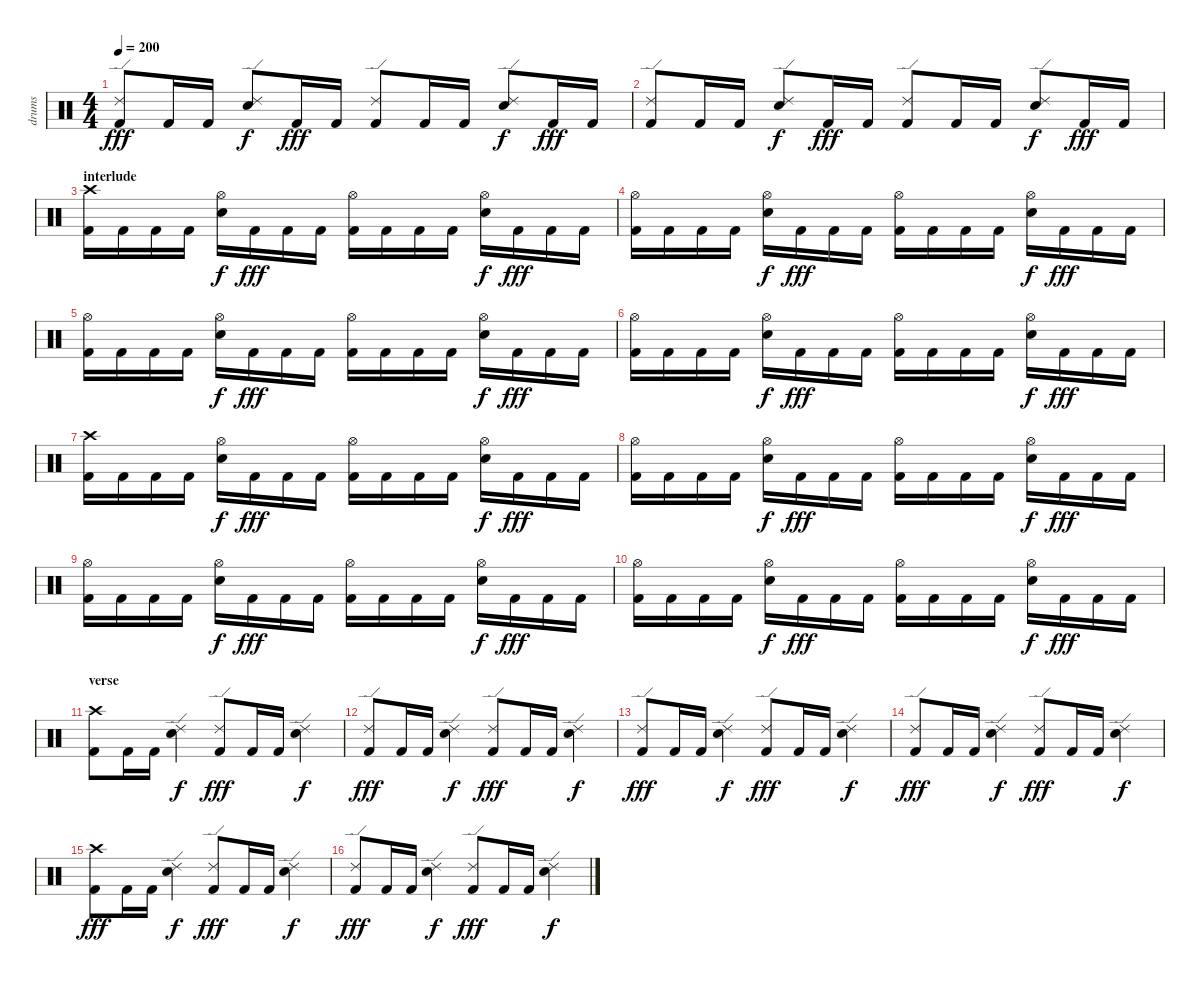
\track ("drums" "drums") {instrument percussion}
\staff {score}
\articulation defaults
\ts (4 4)
\tempo 200
\clef neutral
\ks c
("Ride (edge) 2" "Kick (hit) 2").8{dy fff} "Kick (hit) 2".16 "Kick (hit) 2".16 ("Ride (edge) 2" "Snare (hit) 2").8{dy f} "Kick (hit) 2".16{dy fff} "Kick (hit) 2".16 ("Ride (edge) 2" "Kick (hit) 2").8 "Kick (hit) 2".16 "Kick (hit) 2".16 ("Ride (edge) 2" "Snare (hit) 2").8{dy f} "Kick (hit) 2".16{dy fff} "Kick (hit) 2".16 |
("Ride (edge) 2" "Kick (hit) 2").8 "Kick (hit) 2".16 "Kick (hit) 2".16 ("Ride (edge) 2" "Snare (hit) 2").8{dy f} "Kick (hit) 2".16{dy fff} "Kick (hit) 2".16 ("Ride (edge) 2" "Kick (hit) 2").8 "Kick (hit) 2".16 "Kick (hit) 2".16 ("Ride (edge) 2" "Snare (hit) 2").8{dy f} "Kick (hit) 2".16{dy fff} "Kick (hit) 2".16 |
\section ("" "interlude")
("Crash high (hit)" "Kick (hit) 2").16 "Kick (hit) 2".16 "Kick (hit) 2".16 "Kick (hit) 2".16 ("Hi-Hat (open)" "Snare (hit) 2").16{dy f} "Kick (hit) 2".16{dy fff} "Kick (hit) 2".16 "Kick (hit) 2".16 ("Hi-Hat (open)" "Kick (hit) 2").16 "Kick (hit) 2".16 "Kick (hit) 2".16 "Kick (hit) 2".16 ("Hi-Hat (open)" "Snare (hit) 2").16{dy f} "Kick (hit) 2".16{dy fff} "Kick (hit) 2".16 "Kick (hit) 2".16 |
("Hi-Hat (open)" "Kick (hit) 2").16 "Kick (hit) 2".16 "Kick (hit) 2".16 "Kick (hit) 2".16 ("Hi-Hat (open)" "Snare (hit) 2").16{dy f} "Kick (hit) 2".16{dy fff} "Kick (hit) 2".16 "Kick (hit) 2".16 ("Hi-Hat (open)" "Kick (hit) 2").16 "Kick (hit) 2".16 "Kick (hit) 2".16 "Kick (hit) 2".16 ("Hi-Hat (open)" "Snare (hit) 2").16{dy f} "Kick (hit) 2".16{dy fff} "Kick (hit) 2".16 "Kick (hit) 2".16 |
("Hi-Hat (open)" "Kick (hit) 2").16 "Kick (hit) 2".16 "Kick (hit) 2".16 "Kick (hit) 2".16 ("Hi-Hat (open)" "Snare (hit) 2").16{dy f} "Kick (hit) 2".16{dy fff} "Kick (hit) 2".16 "Kick (hit) 2".16 ("Hi-Hat (open)" "Kick (hit) 2").16 "Kick (hit) 2".16 "Kick (hit) 2".16 "Kick (hit) 2".16 ("Hi-Hat (open)" "Snare (hit) 2").16{dy f} "Kick (hit) 2".16{dy fff} "Kick (hit) 2".16 "Kick (hit) 2".16 |
("Hi-Hat (open)" "Kick (hit) 2").16 "Kick (hit) 2".16 "Kick (hit) 2".16 "Kick (hit) 2".16 ("Hi-Hat (open)" "Snare (hit) 2").16{dy f} "Kick (hit) 2".16{dy fff} "Kick (hit) 2".16 "Kick (hit) 2".16 ("Hi-Hat (open)" "Kick (hit) 2").16 "Kick (hit) 2".16 "Kick (hit) 2".16 "Kick (hit) 2".16 ("Hi-Hat (open)" "Snare (hit) 2").16{dy f} "Kick (hit) 2".16{dy fff} "Kick (hit) 2".16 "Kick (hit) 2".16 |
("Crash high (hit)" "Kick (hit) 2").16 "Kick (hit) 2".16 "Kick (hit) 2".16 "Kick (hit) 2".16 ("Hi-Hat (open)" "Snare (hit) 2").16{dy f} "Kick (hit) 2".16{dy fff} "Kick (hit) 2".16 "Kick (hit) 2".16 ("Hi-Hat (open)" "Kick (hit) 2").16 "Kick (hit) 2".16 "Kick (hit) 2".16 "Kick (hit) 2".16 ("Hi-Hat (open)" "Snare (hit) 2").16{dy f} "Kick (hit) 2".16{dy fff} "Kick (hit) 2".16 "Kick (hit) 2".16 |
("Hi-Hat (open)" "Kick (hit) 2").16 "Kick (hit) 2".16 "Kick (hit) 2".16 "Kick (hit) 2".16 ("Hi-Hat (open)" "Snare (hit) 2").16{dy f} "Kick (hit) 2".16{dy fff} "Kick (hit) 2".16 "Kick (hit) 2".16 ("Hi-Hat (open)" "Kick (hit) 2").16 "Kick (hit) 2".16 "Kick (hit) 2".16 "Kick (hit) 2".16 ("Hi-Hat (open)" "Snare (hit) 2").16{dy f} "Kick (hit) 2".16{dy fff} "Kick (hit) 2".16 "Kick (hit) 2".16 |
("Hi-Hat (open)" "Kick (hit) 2").16 "Kick (hit) 2".16 "Kick (hit) 2".16 "Kick (hit) 2".16 ("Hi-Hat (open)" "Snare (hit) 2").16{dy f} "Kick (hit) 2".16{dy fff} "Kick (hit) 2".16 "Kick (hit) 2".16 ("Hi-Hat (open)" "Kick (hit) 2").16 "Kick (hit) 2".16 "Kick (hit) 2".16 "Kick (hit) 2".16 ("Hi-Hat (open)" "Snare (hit) 2").16{dy f} "Kick (hit) 2".16{dy fff} "Kick (hit) 2".16 "Kick (hit) 2".16 |
("Hi-Hat (open)" "Kick (hit) 2").16 "Kick (hit) 2".16 "Kick (hit) 2".16 "Kick (hit) 2".16 ("Hi-Hat (open)" "Snare (hit) 2").16{dy f} "Kick (hit) 2".16{dy fff} "Kick (hit) 2".16 "Kick (hit) 2".16 ("Hi-Hat (open)" "Kick (hit) 2").16 "Kick (hit) 2".16 "Kick (hit) 2".16 "Kick (hit) 2".16 ("Hi-Hat (open)" "Snare (hit) 2").16{dy f} "Kick (hit) 2".16{dy fff} "Kick (hit) 2".16 "Kick (hit) 2".16 |
\section ("" "verse")
("Crash high (hit)" "Kick (hit) 2").8 "Kick (hit) 2".16 "Kick (hit) 2".16 ("Ride (edge) 2" "Snare (hit) 2").4{dy f} ("Ride (edge) 2" "Kick (hit) 2").8{dy fff} "Kick (hit) 2".16 "Kick (hit) 2".16 ("Ride (edge) 2" "Snare (hit) 2").4{dy f} |
("Ride (edge) 2" "Kick (hit) 2").8{dy fff} "Kick (hit) 2".16 "Kick (hit) 2".16 ("Ride (edge) 2" "Snare (hit) 2").4{dy f} ("Ride (edge) 2" "Kick (hit) 2").8{dy fff} "Kick (hit) 2".16 "Kick (hit) 2".16 ("Ride (edge) 2" "Snare (hit) 2").4{dy f} |
("Ride (edge) 2" "Kick (hit) 2").8{dy fff} "Kick (hit) 2".16 "Kick (hit) 2".16 ("Ride (edge) 2" "Snare (hit) 2").4{dy f} ("Ride (edge) 2" "Kick (hit) 2").8{dy fff} "Kick (hit) 2".16 "Kick (hit) 2".16 ("Ride (edge) 2" "Snare (hit) 2").4{dy f} |
("Ride (edge) 2" "Kick (hit) 2").8{dy fff} "Kick (hit) 2".16 "Kick (hit) 2".16 ("Ride (edge) 2" "Snare (hit) 2").4{dy f} ("Ride (edge) 2" "Kick (hit) 2").8{dy fff} "Kick (hit) 2".16 "Kick (hit) 2".16 ("Ride (edge) 2" "Snare (hit) 2").4{dy f} |
("Crash high (hit)" "Kick (hit) 2").8{dy fff} "Kick (hit) 2".16 "Kick (hit) 2".16 ("Ride (edge) 2" "Snare (hit) 2").4{dy f} ("Ride (edge) 2" "Kick (hit) 2").8{dy fff} "Kick (hit) 2".16 "Kick (hit) 2".16 ("Ride (edge) 2" "Snare (hit) 2").4{dy f} |
("Ride (edge) 2" "Kick (hit) 2").8{dy fff} "Kick (hit) 2".16 "Kick (hit) 2".16 ("Ride (edge) 2" "Snare (hit) 2").4{dy f} ("Ride (edge) 2" "Kick (hit) 2").8{dy fff} "Kick (hit) 2".16 "Kick (hit) 2".16 ("Ride (edge) 2" "Snare (hit) 2").4{dy f}
